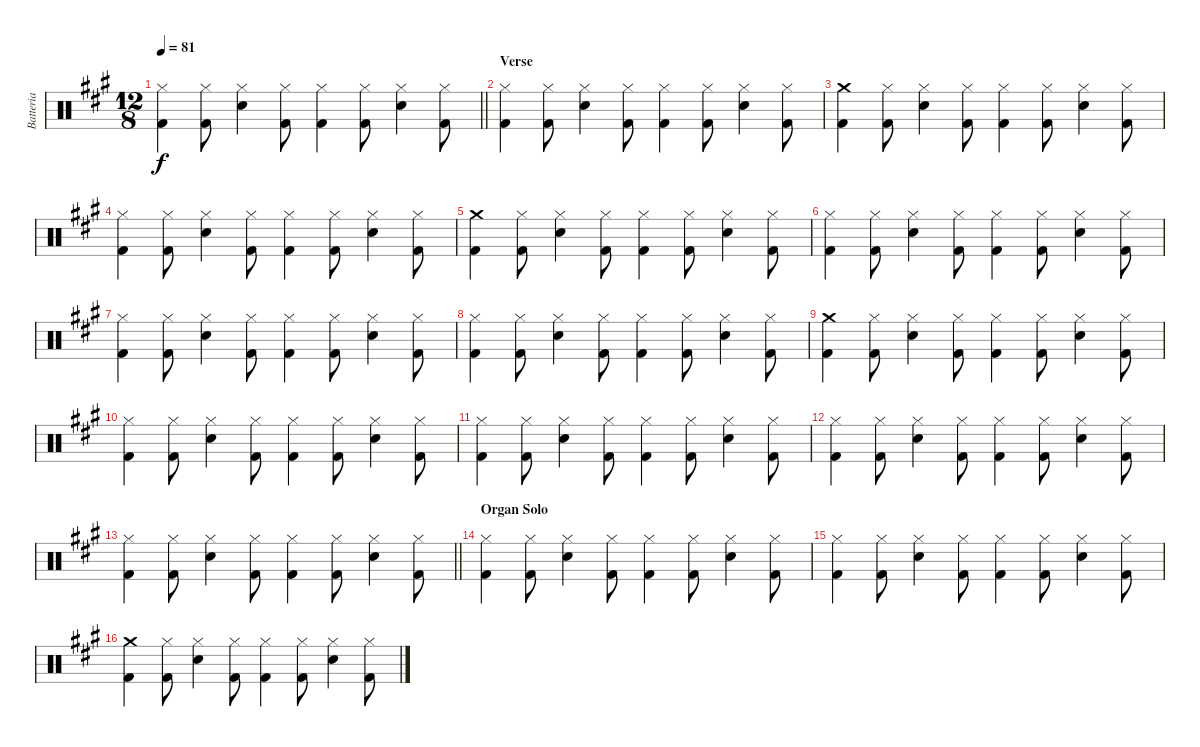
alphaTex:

\track ("Batteria" "Batteria") {instrument percussion}
\staff {score}
\articulation defaults
\ts (12 8)
\tempo 81
\clef neutral
\barLineRight lightlight
\ks a
("Hi-Hat (closed)" "Kick (hit) 2").4{dy f} ("Hi-Hat (closed)" "Kick (hit) 2").8 ("Electric Snare (hit)" "Hi-Hat (closed)").4 ("Hi-Hat (closed)" "Kick (hit) 2").8 ("Hi-Hat (closed)" "Kick (hit) 2").4 ("Hi-Hat (closed)" "Kick (hit) 2").8 ("Electric Snare (hit)" "Hi-Hat (closed)").4 ("Hi-Hat (closed)" "Kick (hit) 2").8 |
\section ("" "Verse")
("Hi-Hat (closed)" "Kick (hit) 2").4 ("Hi-Hat (closed)" "Kick (hit) 2").8 ("Electric Snare (hit)" "Hi-Hat (closed)").4 ("Hi-Hat (closed)" "Kick (hit) 2").8 ("Hi-Hat (closed)" "Kick (hit) 2").4 ("Hi-Hat (closed)" "Kick (hit) 2").8 ("Electric Snare (hit)" "Hi-Hat (closed)").4 ("Hi-Hat (closed)" "Kick (hit) 2").8 |
("Crash medium (hit)" "Kick (hit) 2").4 ("Hi-Hat (closed)" "Kick (hit) 2").8 ("Electric Snare (hit)" "Hi-Hat (closed)").4 ("Hi-Hat (closed)" "Kick (hit) 2").8 ("Hi-Hat (closed)" "Kick (hit) 2").4 ("Hi-Hat (closed)" "Kick (hit) 2").8 ("Electric Snare (hit)" "Hi-Hat (closed)").4 ("Hi-Hat (closed)" "Kick (hit) 2").8 |
("Hi-Hat (closed)" "Kick (hit) 2").4 ("Hi-Hat (closed)" "Kick (hit) 2").8 ("Electric Snare (hit)" "Hi-Hat (closed)").4 ("Hi-Hat (closed)" "Kick (hit) 2").8 ("Hi-Hat (closed)" "Kick (hit) 2").4 ("Hi-Hat (closed)" "Kick (hit) 2").8 ("Electric Snare (hit)" "Hi-Hat (closed)").4 ("Hi-Hat (closed)" "Kick (hit) 2").8 |
("Crash medium (hit)" "Kick (hit) 2").4 ("Hi-Hat (closed)" "Kick (hit) 2").8 ("Electric Snare (hit)" "Hi-Hat (closed)").4 ("Hi-Hat (closed)" "Kick (hit) 2").8 ("Hi-Hat (closed)" "Kick (hit) 2").4 ("Hi-Hat (closed)" "Kick (hit) 2").8 ("Electric Snare (hit)" "Hi-Hat (closed)").4 ("Hi-Hat (closed)" "Kick (hit) 2").8 |
("Hi-Hat (closed)" "Kick (hit) 2").4 ("Hi-Hat (closed)" "Kick (hit) 2").8 ("Electric Snare (hit)" "Hi-Hat (closed)").4 ("Hi-Hat (closed)" "Kick (hit) 2").8 ("Hi-Hat (closed)" "Kick (hit) 2").4 ("Hi-Hat (closed)" "Kick (hit) 2").8 ("Electric Snare (hit)" "Hi-Hat (closed)").4 ("Hi-Hat (closed)" "Kick (hit) 2").8 |
("Hi-Hat (closed)" "Kick (hit) 2").4 ("Hi-Hat (closed)" "Kick (hit) 2").8 ("Electric Snare (hit)" "Hi-Hat (closed)").4 ("Hi-Hat (closed)" "Kick (hit) 2").8 ("Hi-Hat (closed)" "Kick (hit) 2").4 ("Hi-Hat (closed)" "Kick (hit) 2").8 ("Electric Snare (hit)" "Hi-Hat (closed)").4 ("Hi-Hat (closed)" "Kick (hit) 2").8 |
("Hi-Hat (closed)" "Kick (hit) 2").4 ("Hi-Hat (closed)" "Kick (hit) 2").8 ("Electric Snare (hit)" "Hi-Hat (closed)").4 ("Hi-Hat (closed)" "Kick (hit) 2").8 ("Hi-Hat (closed)" "Kick (hit) 2").4 ("Hi-Hat (closed)" "Kick (hit) 2").8 ("Electric Snare (hit)" "Hi-Hat (closed)").4 ("Hi-Hat (closed)" "Kick (hit) 2").8 |
("Crash medium (hit)" "Kick (hit) 2").4 ("Hi-Hat (closed)" "Kick (hit) 2").8 ("Electric Snare (hit)" "Hi-Hat (closed)").4 ("Hi-Hat (closed)" "Kick (hit) 2").8 ("Hi-Hat (closed)" "Kick (hit) 2").4 ("Hi-Hat (closed)" "Kick (hit) 2").8 ("Electric Snare (hit)" "Hi-Hat (closed)").4 ("Hi-Hat (closed)" "Kick (hit) 2").8 |
("Hi-Hat (closed)" "Kick (hit) 2").4 ("Hi-Hat (closed)" "Kick (hit) 2").8 ("Electric Snare (hit)" "Hi-Hat (closed)").4 ("Hi-Hat (closed)" "Kick (hit) 2").8 ("Hi-Hat (closed)" "Kick (hit) 2").4 ("Hi-Hat (closed)" "Kick (hit) 2").8 ("Electric Snare (hit)" "Hi-Hat (closed)").4 ("Hi-Hat (closed)" "Kick (hit) 2").8 |
("Hi-Hat (closed)" "Kick (hit) 2").4 ("Hi-Hat (closed)" "Kick (hit) 2").8 ("Electric Snare (hit)" "Hi-Hat (closed)").4 ("Hi-Hat (closed)" "Kick (hit) 2").8 ("Hi-Hat (closed)" "Kick (hit) 2").4 ("Hi-Hat (closed)" "Kick (hit) 2").8 ("Electric Snare (hit)" "Hi-Hat (closed)").4 ("Hi-Hat (closed)" "Kick (hit) 2").8 |
("Hi-Hat (closed)" "Kick (hit) 2").4 ("Hi-Hat (closed)" "Kick (hit) 2").8 ("Electric Snare (hit)" "Hi-Hat (closed)").4 ("Hi-Hat (closed)" "Kick (hit) 2").8 ("Hi-Hat (closed)" "Kick (hit) 2").4 ("Hi-Hat (closed)" "Kick (hit) 2").8 ("Electric Snare (hit)" "Hi-Hat (closed)").4 ("Hi-Hat (closed)" "Kick (hit) 2").8 |
\barLineRight lightlight
("Hi-Hat (closed)" "Kick (hit) 2").4 ("Hi-Hat (closed)" "Kick (hit) 2").8 ("Electric Snare (hit)" "Hi-Hat (closed)").4 ("Hi-Hat (closed)" "Kick (hit) 2").8 ("Hi-Hat (closed)" "Kick (hit) 2").4 ("Hi-Hat (closed)" "Kick (hit) 2").8 ("Electric Snare (hit)" "Hi-Hat (closed)").4 ("Hi-Hat (closed)" "Kick (hit) 2").8 |
\section ("" "Organ Solo")
("Hi-Hat (closed)" "Kick (hit) 2").4 ("Hi-Hat (closed)" "Kick (hit) 2").8 ("Electric Snare (hit)" "Hi-Hat (closed)").4 ("Hi-Hat (closed)" "Kick (hit) 2").8 ("Hi-Hat (closed)" "Kick (hit) 2").4 ("Hi-Hat (closed)" "Kick (hit) 2").8 ("Electric Snare (hit)" "Hi-Hat (closed)").4 ("Hi-Hat (closed)" "Kick (hit) 2").8 |
("Hi-Hat (closed)" "Kick (hit) 2").4 ("Hi-Hat (closed)" "Kick (hit) 2").8 ("Electric Snare (hit)" "Hi-Hat (closed)").4 ("Hi-Hat (closed)" "Kick (hit) 2").8 ("Hi-Hat (closed)" "Kick (hit) 2").4 ("Hi-Hat (closed)" "Kick (hit) 2").8 ("Electric Snare (hit)" "Hi-Hat (closed)").4 ("Hi-Hat (closed)" "Kick (hit) 2").8 |
("Crash medium (hit)" "Kick (hit) 2").4 ("Hi-Hat (closed)" "Kick (hit) 2").8 ("Electric Snare (hit)" "Hi-Hat (closed)").4 ("Hi-Hat (closed)" "Kick (hit) 2").8 ("Hi-Hat (closed)" "Kick (hit) 2").4 ("Hi-Hat (closed)" "Kick (hit) 2").8 ("Electric Snare (hit)" "Hi-Hat (closed)").4 ("Hi-Hat (closed)" "Kick (hit) 2").8
